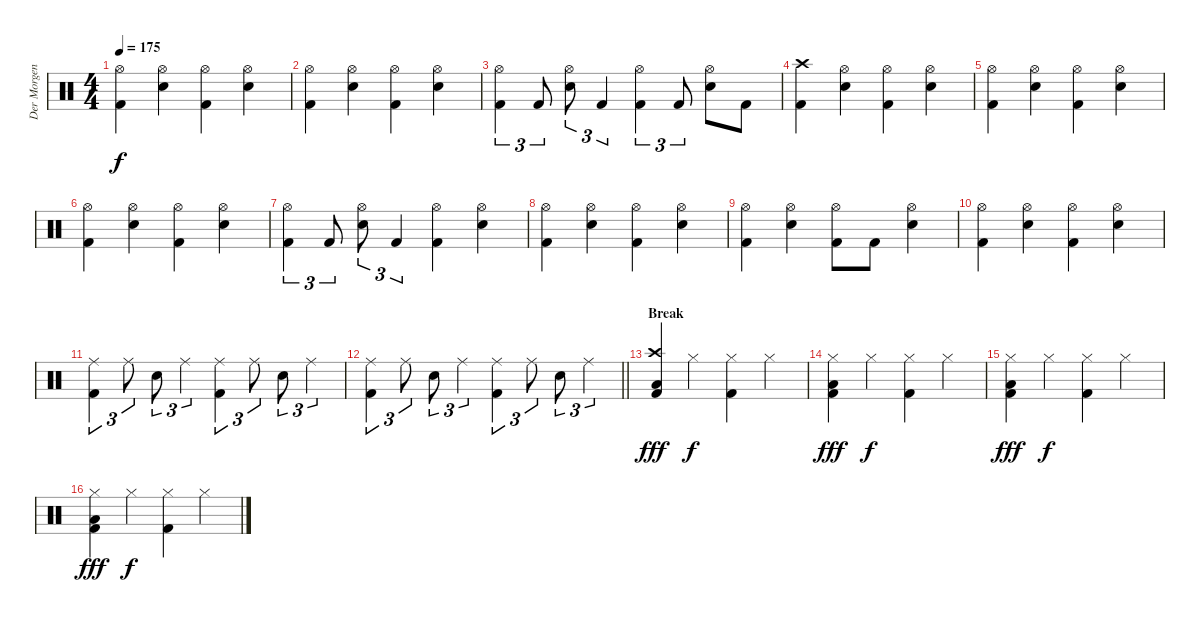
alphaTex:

\track ("Der Morgenstern" "Der Morgen") {instrument percussion}
\staff {score}
\articulation defaults
\ts (4 4)
\tempo 175
\clef neutral
\ks c
("Hi-Hat (open)" "Kick (hit) 2").4{dy f} ("Hi-Hat (open)" "Electric Snare (hit)").4 ("Hi-Hat (open)" "Kick (hit) 2").4 ("Hi-Hat (open)" "Electric Snare (hit)").4 |
("Hi-Hat (open)" "Kick (hit) 2").4 ("Hi-Hat (open)" "Electric Snare (hit)").4 ("Hi-Hat (open)" "Kick (hit) 2").4 ("Hi-Hat (open)" "Electric Snare (hit)").4 |
("Hi-Hat (open)" "Kick (hit) 2").4{tu (3 2)} "Kick (hit) 2".8{tu (3 2)} ("Hi-Hat (open)" "Electric Snare (hit)").8{tu (3 2)} "Kick (hit) 2".4{tu (3 2)} ("Hi-Hat (open)" "Kick (hit) 2").4{tu (3 2)} "Kick (hit) 2".8{tu (3 2)} ("Hi-Hat (open)" "Electric Snare (hit)").8 "Kick (hit) 2".8 |
("Crash high (hit)" "Kick (hit) 2").4 ("Hi-Hat (open)" "Electric Snare (hit)").4 ("Hi-Hat (open)" "Kick (hit) 2").4 ("Hi-Hat (open)" "Electric Snare (hit)").4 |
("Hi-Hat (open)" "Kick (hit) 2").4 ("Hi-Hat (open)" "Electric Snare (hit)").4 ("Hi-Hat (open)" "Kick (hit) 2").4 ("Hi-Hat (open)" "Electric Snare (hit)").4 |
("Hi-Hat (open)" "Kick (hit) 2").4 ("Hi-Hat (open)" "Electric Snare (hit)").4 ("Hi-Hat (open)" "Kick (hit) 2").4 ("Hi-Hat (open)" "Electric Snare (hit)").4 |
("Hi-Hat (open)" "Kick (hit) 2").4{tu (3 2)} "Kick (hit) 2".8{tu (3 2)} ("Hi-Hat (open)" "Electric Snare (hit)").8{tu (3 2)} "Kick (hit) 2".4{tu (3 2)} ("Hi-Hat (open)" "Kick (hit) 2").4 ("Hi-Hat (open)" "Electric Snare (hit)").4 |
("Hi-Hat (open)" "Kick (hit) 2").4 ("Hi-Hat (open)" "Electric Snare (hit)").4 ("Hi-Hat (open)" "Kick (hit) 2").4 ("Hi-Hat (open)" "Electric Snare (hit)").4 |
("Hi-Hat (open)" "Kick (hit) 2").4 ("Hi-Hat (open)" "Electric Snare (hit)").4 ("Hi-Hat (open)" "Kick (hit) 2").8 "Kick (hit) 2".8 ("Hi-Hat (open)" "Electric Snare (hit)").4 |
("Hi-Hat (open)" "Kick (hit) 2").4 ("Hi-Hat (open)" "Electric Snare (hit)").4 ("Hi-Hat (open)" "Kick (hit) 2").4 ("Hi-Hat (open)" "Electric Snare (hit)").4 |
("Ride (middle)" "Kick (hit) 2").4{tu (3 2)} "Ride (middle)".8{tu (3 2)} "Electric Snare (hit)".8{tu (3 2)} "Ride (middle)".4{tu (3 2)} ("Ride (middle)" "Kick (hit) 2").4{tu (3 2)} "Ride (middle)".8{tu (3 2)} "Electric Snare (hit)".8{tu (3 2)} "Ride (middle)".4{tu (3 2)} |
\barLineRight lightlight
("Ride (middle)" "Kick (hit) 2").4{tu (3 2)} "Ride (middle)".8{tu (3 2)} "Electric Snare (hit)".8{tu (3 2)} "Ride (middle)".4{tu (3 2)} ("Ride (middle)" "Kick (hit) 2").4{tu (3 2)} "Ride (middle)".8{tu (3 2)} "Electric Snare (hit)".8{tu (3 2)} "Ride (middle)".4{tu (3 2)} |
\section ("" "Break")
("Crash high (hit)" "Low Floor Tom (hit)" "Kick (hit) 2").4{dy fff} "Hi-Hat (closed)".4{dy f} ("Hi-Hat (closed)" "Kick (hit) 2").4 "Hi-Hat (closed)".4 |
("Hi-Hat (closed)" "Low Floor Tom (hit)" "Kick (hit) 2").4{dy fff} "Hi-Hat (closed)".4{dy f} ("Hi-Hat (closed)" "Kick (hit) 2").4 "Hi-Hat (closed)".4 |
("Hi-Hat (closed)" "Low Floor Tom (hit)" "Kick (hit) 2").4{dy fff} "Hi-Hat (closed)".4{dy f} ("Hi-Hat (closed)" "Kick (hit) 2").4 "Hi-Hat (closed)".4 |
("Hi-Hat (closed)" "Low Floor Tom (hit)" "Kick (hit) 2").4{dy fff} "Hi-Hat (closed)".4{dy f} ("Hi-Hat (closed)" "Kick (hit) 2").4 "Hi-Hat (closed)".4
